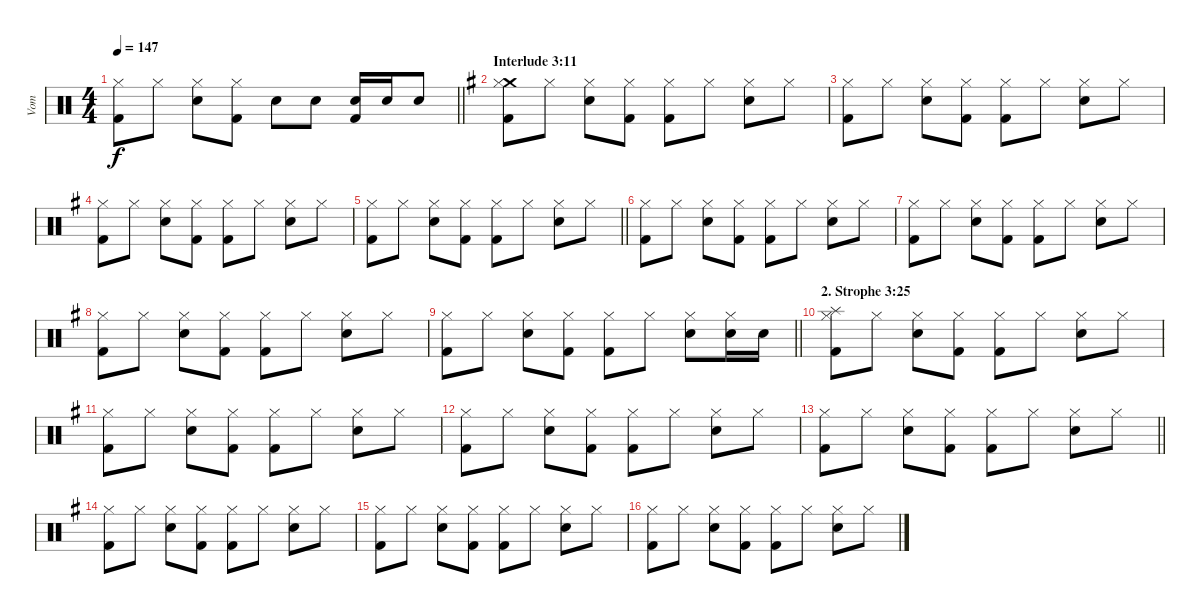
\track ("Vom" "Vom") {instrument percussion}
\staff {score}
\articulation defaults
\ts (4 4)
\tempo 147
\clef neutral
\barLineRight lightlight
\ks c
("Hi-Hat (closed)" "Kick (hit) 2").8{dy f} "Hi-Hat (closed)".8 ("Hi-Hat (closed)" "Snare (hit) 2").8 ("Hi-Hat (closed)" "Kick (hit) 2").8 "Snare (hit) 2".8 "Snare (hit) 2".8 ("Snare (hit) 2" "Kick (hit) 2").16 "Snare (hit) 2".16 "Snare (hit) 2".8 |
\section ("" "Interlude 3:11")
\ks g
("Crash medium (hit)" "Hi-Hat (closed)" "Kick (hit) 2").8 "Hi-Hat (closed)".8 ("Hi-Hat (closed)" "Snare (hit) 2").8 ("Hi-Hat (closed)" "Kick (hit) 2").8 ("Hi-Hat (closed)" "Kick (hit) 2").8 "Hi-Hat (closed)".8 ("Hi-Hat (closed)" "Snare (hit) 2").8 "Hi-Hat (closed)".8 |
("Hi-Hat (closed)" "Kick (hit) 2").8 "Hi-Hat (closed)".8 ("Hi-Hat (closed)" "Snare (hit) 2").8 ("Hi-Hat (closed)" "Kick (hit) 2").8 ("Hi-Hat (closed)" "Kick (hit) 2").8 "Hi-Hat (closed)".8 ("Hi-Hat (closed)" "Snare (hit) 2").8 "Hi-Hat (closed)".8 |
("Hi-Hat (closed)" "Kick (hit) 2").8 "Hi-Hat (closed)".8 ("Hi-Hat (closed)" "Snare (hit) 2").8 ("Hi-Hat (closed)" "Kick (hit) 2").8 ("Hi-Hat (closed)" "Kick (hit) 2").8 "Hi-Hat (closed)".8 ("Hi-Hat (closed)" "Snare (hit) 2").8 "Hi-Hat (closed)".8 |
\barLineRight lightlight
("Hi-Hat (closed)" "Kick (hit) 2").8 "Hi-Hat (closed)".8 ("Hi-Hat (closed)" "Snare (hit) 2").8 ("Hi-Hat (closed)" "Kick (hit) 2").8 ("Hi-Hat (closed)" "Kick (hit) 2").8 "Hi-Hat (closed)".8 ("Hi-Hat (closed)" "Snare (hit) 2").8 "Hi-Hat (closed)".8 |
("Hi-Hat (closed)" "Kick (hit) 2").8 "Hi-Hat (closed)".8 ("Hi-Hat (closed)" "Snare (hit) 2").8 ("Hi-Hat (closed)" "Kick (hit) 2").8 ("Hi-Hat (closed)" "Kick (hit) 2").8 "Hi-Hat (closed)".8 ("Hi-Hat (closed)" "Snare (hit) 2").8 "Hi-Hat (closed)".8 |
("Hi-Hat (closed)" "Kick (hit) 2").8 "Hi-Hat (closed)".8 ("Hi-Hat (closed)" "Snare (hit) 2").8 ("Hi-Hat (closed)" "Kick (hit) 2").8 ("Hi-Hat (closed)" "Kick (hit) 2").8 "Hi-Hat (closed)".8 ("Hi-Hat (closed)" "Snare (hit) 2").8 "Hi-Hat (closed)".8 |
("Hi-Hat (closed)" "Kick (hit) 2").8 "Hi-Hat (closed)".8 ("Hi-Hat (closed)" "Snare (hit) 2").8 ("Hi-Hat (closed)" "Kick (hit) 2").8 ("Hi-Hat (closed)" "Kick (hit) 2").8 "Hi-Hat (closed)".8 ("Hi-Hat (closed)" "Snare (hit) 2").8 "Hi-Hat (closed)".8 |
\barLineRight lightlight
("Hi-Hat (closed)" "Kick (hit) 2").8 "Hi-Hat (closed)".8 ("Hi-Hat (closed)" "Snare (hit) 2").8 ("Hi-Hat (closed)" "Kick (hit) 2").8 ("Hi-Hat (closed)" "Kick (hit) 2").8 "Hi-Hat (closed)".8 ("Hi-Hat (closed)" "Snare (hit) 2").8 ("Hi-Hat (closed)" "Snare (hit) 2").16 "Snare (hit) 2".16 |
\section ("" "2. Strophe 3:25")
("Splash (hit)" "Hi-Hat (closed)" "Kick (hit) 2").8 "Hi-Hat (closed)".8 ("Hi-Hat (closed)" "Snare (hit) 2").8 ("Hi-Hat (closed)" "Kick (hit) 2").8 ("Hi-Hat (closed)" "Kick (hit) 2").8 "Hi-Hat (closed)".8 ("Hi-Hat (closed)" "Snare (hit) 2").8 "Hi-Hat (closed)".8 |
("Hi-Hat (closed)" "Kick (hit) 2").8 "Hi-Hat (closed)".8 ("Hi-Hat (closed)" "Snare (hit) 2").8 ("Hi-Hat (closed)" "Kick (hit) 2").8 ("Hi-Hat (closed)" "Kick (hit) 2").8 "Hi-Hat (closed)".8 ("Hi-Hat (closed)" "Snare (hit) 2").8 "Hi-Hat (closed)".8 |
("Hi-Hat (closed)" "Kick (hit) 2").8 "Hi-Hat (closed)".8 ("Hi-Hat (closed)" "Snare (hit) 2").8 ("Hi-Hat (closed)" "Kick (hit) 2").8 ("Hi-Hat (closed)" "Kick (hit) 2").8 "Hi-Hat (closed)".8 ("Hi-Hat (closed)" "Snare (hit) 2").8 "Hi-Hat (closed)".8 |
\barLineRight lightlight
("Hi-Hat (closed)" "Kick (hit) 2").8 "Hi-Hat (closed)".8 ("Hi-Hat (closed)" "Snare (hit) 2").8 ("Hi-Hat (closed)" "Kick (hit) 2").8 ("Hi-Hat (closed)" "Kick (hit) 2").8 "Hi-Hat (closed)".8 ("Hi-Hat (closed)" "Snare (hit) 2").8 "Hi-Hat (closed)".8 |
("Hi-Hat (closed)" "Kick (hit) 2").8 "Hi-Hat (closed)".8 ("Hi-Hat (closed)" "Snare (hit) 2").8 ("Hi-Hat (closed)" "Kick (hit) 2").8 ("Hi-Hat (closed)" "Kick (hit) 2").8 "Hi-Hat (closed)".8 ("Hi-Hat (closed)" "Snare (hit) 2").8 "Hi-Hat (closed)".8 |
("Hi-Hat (closed)" "Kick (hit) 2").8 "Hi-Hat (closed)".8 ("Hi-Hat (closed)" "Snare (hit) 2").8 ("Hi-Hat (closed)" "Kick (hit) 2").8 ("Hi-Hat (closed)" "Kick (hit) 2").8 "Hi-Hat (closed)".8 ("Hi-Hat (closed)" "Snare (hit) 2").8 "Hi-Hat (closed)".8 |
("Hi-Hat (closed)" "Kick (hit) 2").8 "Hi-Hat (closed)".8 ("Hi-Hat (closed)" "Snare (hit) 2").8 ("Hi-Hat (closed)" "Kick (hit) 2").8 ("Hi-Hat (closed)" "Kick (hit) 2").8 "Hi-Hat (closed)".8 ("Hi-Hat (closed)" "Snare (hit) 2").8 "Hi-Hat (closed)".8
